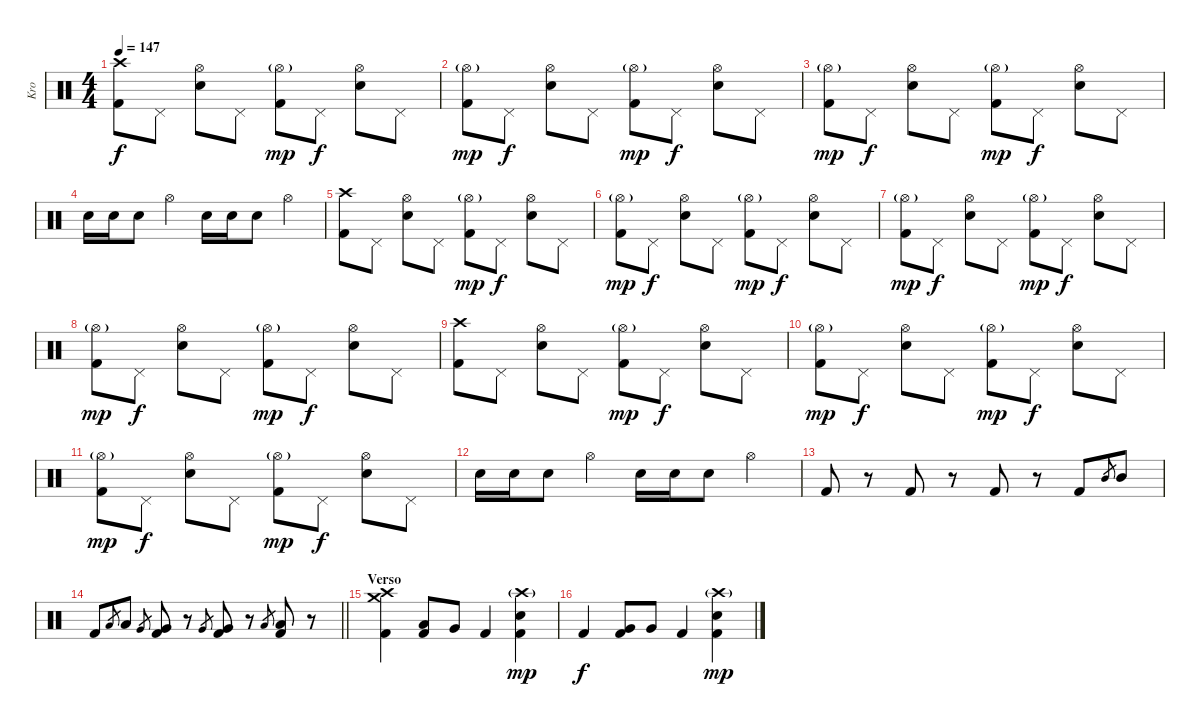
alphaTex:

\track ("Kro" "Kro") {instrument percussion}
\staff {score}
\articulation defaults
\ts (4 4)
\tempo 147
\clef neutral
\ks c
("Crash high (hit)" "Kick (hit) 2").8{dy f} "Pedal Hi-Hat (hit)".8 ("Hi-Hat (open)" "Electric Snare (hit)").8 "Pedal Hi-Hat (hit)".8 ("Hi-Hat (open)"{g} "Kick (hit) 2").8{dy mp} "Pedal Hi-Hat (hit)".8{dy f} ("Hi-Hat (open)" "Electric Snare (hit)").8 "Pedal Hi-Hat (hit)".8 |
("Hi-Hat (open)"{g} "Kick (hit) 2").8{dy mp} "Pedal Hi-Hat (hit)".8{dy f} ("Hi-Hat (open)" "Electric Snare (hit)").8 "Pedal Hi-Hat (hit)".8 ("Hi-Hat (open)"{g} "Kick (hit) 2").8{dy mp} "Pedal Hi-Hat (hit)".8{dy f} ("Hi-Hat (open)" "Electric Snare (hit)").8 "Pedal Hi-Hat (hit)".8 |
("Hi-Hat (open)"{g} "Kick (hit) 2").8{dy mp} "Pedal Hi-Hat (hit)".8{dy f} ("Hi-Hat (open)" "Electric Snare (hit)").8 "Pedal Hi-Hat (hit)".8 ("Hi-Hat (open)"{g} "Kick (hit) 2").8{dy mp} "Pedal Hi-Hat (hit)".8{dy f} ("Hi-Hat (open)" "Electric Snare (hit)").8 "Pedal Hi-Hat (hit)".8 |
"Electric Snare (hit)".16 "Electric Snare (hit)".16 "Electric Snare (hit)".8 "Hi-Hat (open)".4 "Electric Snare (hit)".16 "Electric Snare (hit)".16 "Electric Snare (hit)".8 "Hi-Hat (open)".4 |
("Crash high (hit)" "Kick (hit) 2").8 "Pedal Hi-Hat (hit)".8 ("Hi-Hat (open)" "Electric Snare (hit)").8 "Pedal Hi-Hat (hit)".8 ("Hi-Hat (open)"{g} "Kick (hit) 2").8{dy mp} "Pedal Hi-Hat (hit)".8{dy f} ("Hi-Hat (open)" "Electric Snare (hit)").8 "Pedal Hi-Hat (hit)".8 |
("Hi-Hat (open)"{g} "Kick (hit) 2").8{dy mp} "Pedal Hi-Hat (hit)".8{dy f} ("Hi-Hat (open)" "Electric Snare (hit)").8 "Pedal Hi-Hat (hit)".8 ("Hi-Hat (open)"{g} "Kick (hit) 2").8{dy mp} "Pedal Hi-Hat (hit)".8{dy f} ("Hi-Hat (open)" "Electric Snare (hit)").8 "Pedal Hi-Hat (hit)".8 |
("Hi-Hat (open)"{g} "Kick (hit) 2").8{dy mp} "Pedal Hi-Hat (hit)".8{dy f} ("Hi-Hat (open)" "Electric Snare (hit)").8 "Pedal Hi-Hat (hit)".8 ("Hi-Hat (open)"{g} "Kick (hit) 2").8{dy mp} "Pedal Hi-Hat (hit)".8{dy f} ("Hi-Hat (open)" "Electric Snare (hit)").8 "Pedal Hi-Hat (hit)".8 |
("Hi-Hat (open)"{g} "Kick (hit) 2").8{dy mp} "Pedal Hi-Hat (hit)".8{dy f} ("Hi-Hat (open)" "Electric Snare (hit)").8 "Pedal Hi-Hat (hit)".8 ("Hi-Hat (open)"{g} "Kick (hit) 2").8{dy mp} "Pedal Hi-Hat (hit)".8{dy f} ("Hi-Hat (open)" "Electric Snare (hit)").8 "Pedal Hi-Hat (hit)".8 |
("Crash high (hit)" "Kick (hit) 2").8 "Pedal Hi-Hat (hit)".8 ("Hi-Hat (open)" "Electric Snare (hit)").8 "Pedal Hi-Hat (hit)".8 ("Hi-Hat (open)"{g} "Kick (hit) 2").8{dy mp} "Pedal Hi-Hat (hit)".8{dy f} ("Hi-Hat (open)" "Electric Snare (hit)").8 "Pedal Hi-Hat (hit)".8 |
("Hi-Hat (open)"{g} "Kick (hit) 2").8{dy mp} "Pedal Hi-Hat (hit)".8{dy f} ("Hi-Hat (open)" "Electric Snare (hit)").8 "Pedal Hi-Hat (hit)".8 ("Hi-Hat (open)"{g} "Kick (hit) 2").8{dy mp} "Pedal Hi-Hat (hit)".8{dy f} ("Hi-Hat (open)" "Electric Snare (hit)").8 "Pedal Hi-Hat (hit)".8 |
("Hi-Hat (open)"{g} "Kick (hit) 2").8{dy mp} "Pedal Hi-Hat (hit)".8{dy f} ("Hi-Hat (open)" "Electric Snare (hit)").8 "Pedal Hi-Hat (hit)".8 ("Hi-Hat (open)"{g} "Kick (hit) 2").8{dy mp} "Pedal Hi-Hat (hit)".8{dy f} ("Hi-Hat (open)" "Electric Snare (hit)").8 "Pedal Hi-Hat (hit)".8 |
"Electric Snare (hit)".16 "Electric Snare (hit)".16 "Electric Snare (hit)".8 "Hi-Hat (open)".4 "Electric Snare (hit)".16 "Electric Snare (hit)".16 "Electric Snare (hit)".8 "Hi-Hat (open)".4 |
"Kick (hit) 2".8 r.8 "Kick (hit) 2".8 r.8 "Kick (hit) 2".8 r.8 "Kick (hit) 2".8 "Mid Tom (hit)".8{gr} "Mid Tom (hit)".8 |
\barLineRight lightlight "Kick (hit) 2".8 "Low Tom (hit)".8{gr} "Low Tom (hit)".8 "Very Low Tom (hit)".8{gr}
("Very Low Tom (hit)" "Kick (hit) 2").8 r.8 "Very Low Tom (hit)".8{gr} ("Very Low Tom (hit)" "Kick (hit) 2").8 r.8 "Low Floor Tom (hit)".8{gr} ("Low Floor Tom (hit)" "Kick (hit) 2").8 r.8 |
\section ("" "Verso")
("Crash medium (hit)" "Crash high (hit)" "Kick (hit) 2").4 ("Low Tom (hit)" "Kick (hit) 2").8 "Very Low Tom (hit)".8 "Kick (hit) 2".4 ("Crash high (hit)"{g} "Electric Snare (hit)" "Kick (hit) 2").4{dy mp} |
"Kick (hit) 2".4{dy f} ("Very Low Tom (hit)" "Kick (hit) 2").8 "Very Low Tom (hit)".8 "Kick (hit) 2".4 ("Crash high (hit)"{g} "Electric Snare (hit)" "Kick (hit) 2").4{dy mp}
